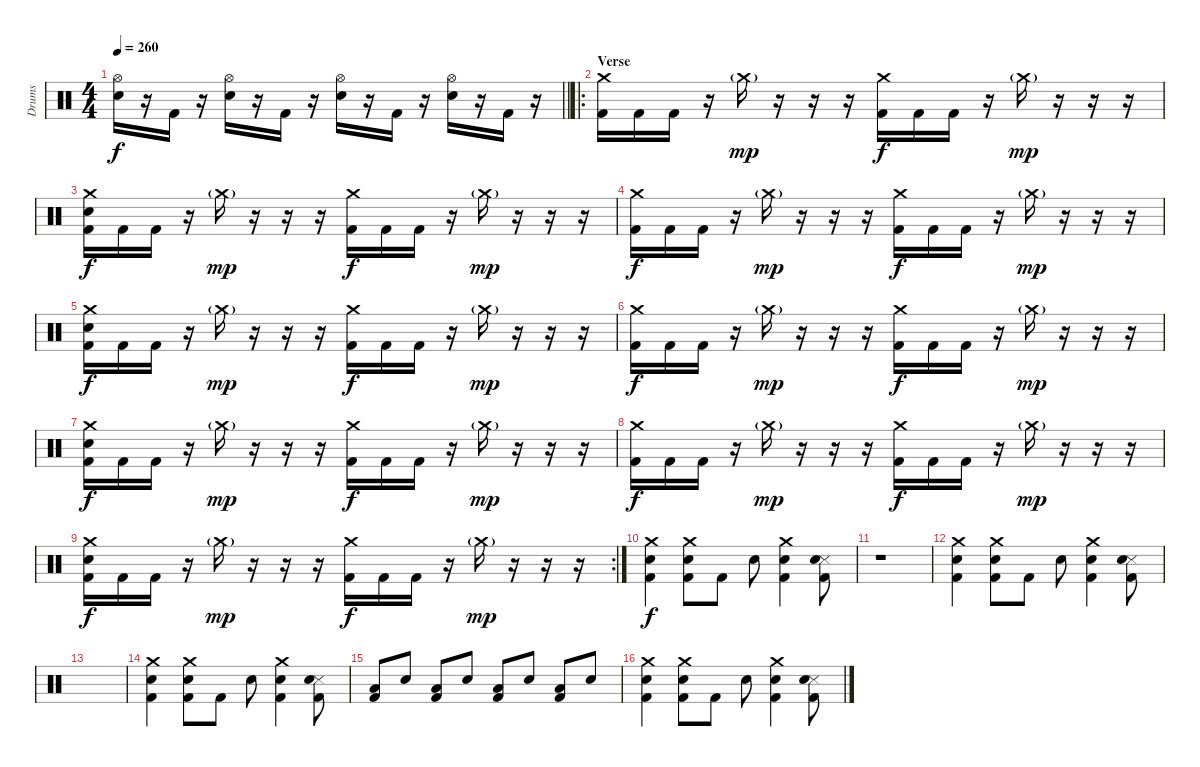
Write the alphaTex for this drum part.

\track ("Drums" "Drums") {instrument percussion}
\staff {score}
\articulation defaults
\ts (4 4)
\tempo 260
\clef neutral
\barLineRight lightlight
\ks c
("Snare (hit) 2" "Hi-Hat (open)").16{dy f} r.16 "Kick (hit) 2".16 r.16 ("Snare (hit) 2" "Hi-Hat (open)").16 r.16 "Kick (hit) 2".16 r.16 ("Snare (hit) 2" "Hi-Hat (open)").16 r.16 "Kick (hit) 2".16 r.16 ("Snare (hit) 2" "Hi-Hat (open)").16 r.16 "Kick (hit) 2".16 r.16 |
\ro
\section ("" "Verse")
("Crash medium (hit)" "Kick (hit) 2").16 "Kick (hit) 2".16 "Kick (hit) 2".16 r.16 "Crash medium (hit)"{g}.16{dy mp} r.16 r.16 r.16 ("Crash medium (hit)" "Kick (hit) 2").16{dy f} "Kick (hit) 2".16 "Kick (hit) 2".16 r.16 "Crash medium (hit)"{g}.16{dy mp} r.16 r.16 r.16 |
("Crash medium (hit)" "Snare (hit) 2" "Kick (hit) 2").16{dy f} "Kick (hit) 2".16 "Kick (hit) 2".16 r.16 "Crash medium (hit)"{g}.16{dy mp} r.16 r.16 r.16 ("Crash medium (hit)" "Kick (hit) 2").16{dy f} "Kick (hit) 2".16 "Kick (hit) 2".16 r.16 "Crash medium (hit)"{g}.16{dy mp} r.16 r.16 r.16 |
("Crash medium (hit)" "Kick (hit) 2").16{dy f} "Kick (hit) 2".16 "Kick (hit) 2".16 r.16 "Crash medium (hit)"{g}.16{dy mp} r.16 r.16 r.16 ("Crash medium (hit)" "Kick (hit) 2").16{dy f} "Kick (hit) 2".16 "Kick (hit) 2".16 r.16 "Crash medium (hit)"{g}.16{dy mp} r.16 r.16 r.16 |
("Crash medium (hit)" "Snare (hit) 2" "Kick (hit) 2").16{dy f} "Kick (hit) 2".16 "Kick (hit) 2".16 r.16 "Crash medium (hit)"{g}.16{dy mp} r.16 r.16 r.16 ("Crash medium (hit)" "Kick (hit) 2").16{dy f} "Kick (hit) 2".16 "Kick (hit) 2".16 r.16 "Crash medium (hit)"{g}.16{dy mp} r.16 r.16 r.16 |
("Crash medium (hit)" "Kick (hit) 2").16{dy f} "Kick (hit) 2".16 "Kick (hit) 2".16 r.16 "Crash medium (hit)"{g}.16{dy mp} r.16 r.16 r.16 ("Crash medium (hit)" "Kick (hit) 2").16{dy f} "Kick (hit) 2".16 "Kick (hit) 2".16 r.16 "Crash medium (hit)"{g}.16{dy mp} r.16 r.16 r.16 |
("Crash medium (hit)" "Snare (hit) 2" "Kick (hit) 2").16{dy f} "Kick (hit) 2".16 "Kick (hit) 2".16 r.16 "Crash medium (hit)"{g}.16{dy mp} r.16 r.16 r.16 ("Crash medium (hit)" "Kick (hit) 2").16{dy f} "Kick (hit) 2".16 "Kick (hit) 2".16 r.16 "Crash medium (hit)"{g}.16{dy mp} r.16 r.16 r.16 |
("Crash medium (hit)" "Kick (hit) 2").16{dy f} "Kick (hit) 2".16 "Kick (hit) 2".16 r.16 "Crash medium (hit)"{g}.16{dy mp} r.16 r.16 r.16 ("Crash medium (hit)" "Kick (hit) 2").16{dy f} "Kick (hit) 2".16 "Kick (hit) 2".16 r.16 "Crash medium (hit)"{g}.16{dy mp} r.16 r.16 r.16 |
\rc 2
("Crash medium (hit)" "Snare (hit) 2" "Kick (hit) 2").16{dy f} "Kick (hit) 2".16 "Kick (hit) 2".16 r.16 "Crash medium (hit)"{g}.16{dy mp} r.16 r.16 r.16 ("Crash medium (hit)" "Kick (hit) 2").16{dy f} "Kick (hit) 2".16 "Kick (hit) 2".16 r.16 "Crash medium (hit)"{g}.16{dy mp} r.16 r.16 r.16 |
("Snare (hit) 2" "Crash medium (hit)" "Kick (hit) 2").4{dy f} ("Snare (hit) 2" "Crash medium (hit)" "Kick (hit) 2").8 "Kick (hit) 2".8 "Snare (hit) 2".8 ("Crash medium (hit)" "Snare (hit) 2" "Kick (hit) 2").4 ("Snare (side stick) 3" "Snare (hit) 2" "Kick (hit) 2").8 |
r.1 |
("Snare (hit) 2" "Crash medium (hit)" "Kick (hit) 2").4 ("Snare (hit) 2" "Crash medium (hit)" "Kick (hit) 2").8 "Kick (hit) 2".8 "Snare (hit) 2".8 ("Crash medium (hit)" "Snare (hit) 2" "Kick (hit) 2").4 ("Snare (side stick) 3" "Snare (hit) 2" "Kick (hit) 2").8 |
|
("Snare (hit) 2" "Crash medium (hit)" "Kick (hit) 2").4 ("Snare (hit) 2" "Crash medium (hit)" "Kick (hit) 2").8 "Kick (hit) 2".8 "Snare (hit) 2".8 ("Crash medium (hit)" "Snare (hit) 2" "Kick (hit) 2").4 ("Snare (side stick) 3" "Snare (hit) 2" "Kick (hit) 2").8 |
("Kick (hit) 2" "Low Floor Tom (hit)").8 "Snare (hit) 2".8 ("Kick (hit) 2" "Low Floor Tom (hit)").8 "Snare (hit) 2".8 ("Kick (hit) 2" "Low Floor Tom (hit)").8 "Snare (hit) 2".8 ("Kick (hit) 2" "Low Floor Tom (hit)").8 "Snare (hit) 2".8 |
("Snare (hit) 2" "Crash medium (hit)" "Kick (hit) 2").4 ("Snare (hit) 2" "Crash medium (hit)" "Kick (hit) 2").8 "Kick (hit) 2".8 "Snare (hit) 2".8 ("Crash medium (hit)" "Snare (hit) 2" "Kick (hit) 2").4 ("Snare (side stick) 3" "Snare (hit) 2" "Kick (hit) 2").8
